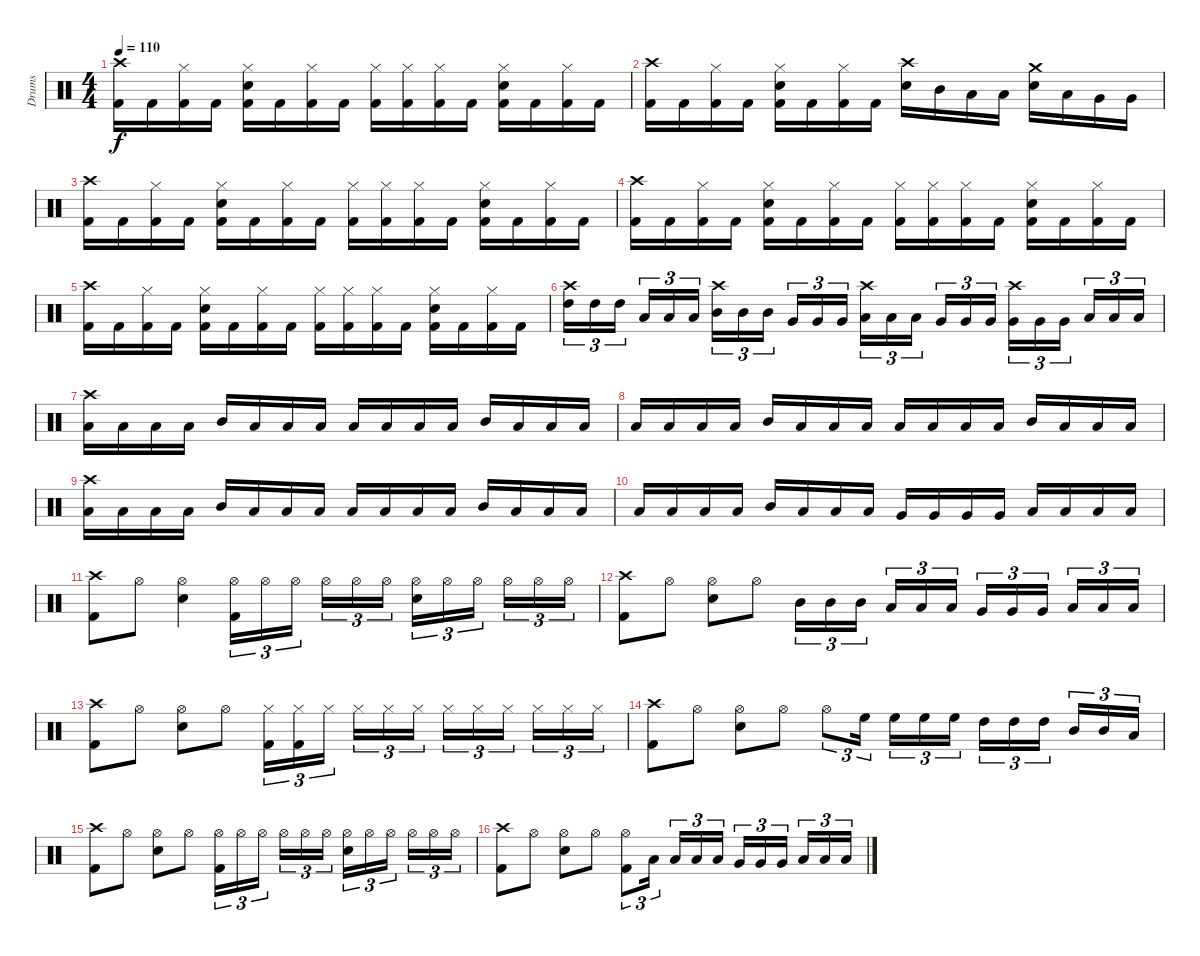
\track ("Drums" "Drums") {instrument percussion}
\staff {score}
\articulation defaults
\ts (4 4)
\tempo 110
\clef neutral
\ks c
("Crash high (hit)" "Kick (hit) 2").16{dy f} "Kick (hit) 2".16 ("Hi-Hat (closed)" "Kick (hit) 2").16 "Kick (hit) 2".16 ("Hi-Hat (closed)" "Electric Snare (hit)" "Kick (hit) 2").16 "Kick (hit) 2".16 ("Hi-Hat (closed)" "Kick (hit) 2").16 "Kick (hit) 2".16 ("Hi-Hat (closed)" "Kick (hit) 2").16 ("Hi-Hat (closed)" "Kick (hit) 2").16 ("Hi-Hat (closed)" "Kick (hit) 2").16 "Kick (hit) 2".16 ("Hi-Hat (closed)" "Electric Snare (hit)" "Kick (hit) 2").16 "Kick (hit) 2".16 ("Hi-Hat (closed)" "Kick (hit) 2").16 "Kick (hit) 2".16 |
("Crash high (hit)" "Kick (hit) 2").16 "Kick (hit) 2".16 ("Hi-Hat (closed)" "Kick (hit) 2").16 "Kick (hit) 2".16 ("Hi-Hat (closed)" "Electric Snare (hit)" "Kick (hit) 2").16 "Kick (hit) 2".16 ("Hi-Hat (closed)" "Kick (hit) 2").16 "Kick (hit) 2".16 ("Crash high (hit)" "Electric Snare (hit)").16 "Mid Tom (hit)".16 "Low Tom (hit)".16 "Low Tom (hit)".16 ("Crash medium (hit)" "Electric Snare (hit)").16 "Low Tom (hit)".16 "Very Low Tom (hit)".16 "Very Low Tom (hit)".16 |
("Crash high (hit)" "Kick (hit) 2").16 "Kick (hit) 2".16 ("Hi-Hat (closed)" "Kick (hit) 2").16 "Kick (hit) 2".16 ("Hi-Hat (closed)" "Electric Snare (hit)" "Kick (hit) 2").16 "Kick (hit) 2".16 ("Hi-Hat (closed)" "Kick (hit) 2").16 "Kick (hit) 2".16 ("Hi-Hat (closed)" "Kick (hit) 2").16 ("Hi-Hat (closed)" "Kick (hit) 2").16 ("Hi-Hat (closed)" "Kick (hit) 2").16 "Kick (hit) 2".16 ("Hi-Hat (closed)" "Electric Snare (hit)" "Kick (hit) 2").16 "Kick (hit) 2".16 ("Hi-Hat (closed)" "Kick (hit) 2").16 "Kick (hit) 2".16 |
("Crash high (hit)" "Kick (hit) 2").16 "Kick (hit) 2".16 ("Hi-Hat (closed)" "Kick (hit) 2").16 "Kick (hit) 2".16 ("Hi-Hat (closed)" "Electric Snare (hit)" "Kick (hit) 2").16 "Kick (hit) 2".16 ("Hi-Hat (closed)" "Kick (hit) 2").16 "Kick (hit) 2".16 ("Hi-Hat (closed)" "Kick (hit) 2").16 ("Hi-Hat (closed)" "Kick (hit) 2").16 ("Hi-Hat (closed)" "Kick (hit) 2").16 "Kick (hit) 2".16 ("Hi-Hat (closed)" "Electric Snare (hit)" "Kick (hit) 2").16 "Kick (hit) 2".16 ("Hi-Hat (closed)" "Kick (hit) 2").16 "Kick (hit) 2".16 |
("Crash high (hit)" "Kick (hit) 2").16 "Kick (hit) 2".16 ("Hi-Hat (closed)" "Kick (hit) 2").16 "Kick (hit) 2".16 ("Hi-Hat (closed)" "Electric Snare (hit)" "Kick (hit) 2").16 "Kick (hit) 2".16 ("Hi-Hat (closed)" "Kick (hit) 2").16 "Kick (hit) 2".16 ("Hi-Hat (closed)" "Kick (hit) 2").16 ("Hi-Hat (closed)" "Kick (hit) 2").16 ("Hi-Hat (closed)" "Kick (hit) 2").16 "Kick (hit) 2".16 ("Hi-Hat (closed)" "Electric Snare (hit)" "Kick (hit) 2").16 "Kick (hit) 2".16 ("Hi-Hat (closed)" "Kick (hit) 2").16 "Kick (hit) 2".16 |
("Crash high (hit)" "High Tom (hit)").16{tu (3 2)} "High Tom (hit)".16{tu (3 2)} "High Tom (hit)".16{tu (3 2)} "Low Tom (hit)".16{tu (3 2)} "Low Tom (hit)".16{tu (3 2)} "Low Tom (hit)".16{tu (3 2)} ("Crash high (hit)" "Mid Tom (hit)").16{tu (3 2)} "Mid Tom (hit)".16{tu (3 2)} "Mid Tom (hit)".16{tu (3 2)} "Very Low Tom (hit)".16{tu (3 2)} "Very Low Tom (hit)".16{tu (3 2)} "Very Low Tom (hit)".16{tu (3 2)} ("Crash high (hit)" "Low Tom (hit)").16{tu (3 2)} "Low Tom (hit)".16{tu (3 2)} "Low Tom (hit)".16{tu (3 2)} "Very Low Tom (hit)".16{tu (3 2)} "Very Low Tom (hit)".16{tu (3 2)} "Very Low Tom (hit)".16{tu (3 2)} ("Crash high (hit)" "Very Low Tom (hit)").16{tu (3 2)} "Very Low Tom (hit)".16{tu (3 2)} "Very Low Tom (hit)".16{tu (3 2)} "Low Floor Tom (hit)".16{tu (3 2)} "Low Floor Tom (hit)".16{tu (3 2)} "Low Floor Tom (hit)".16{tu (3 2)} |
("Crash high (hit)" "Low Tom (hit)").16 "Low Tom (hit)".16 "Low Tom (hit)".16 "Low Tom (hit)".16 "Mid Tom (hit)".16 "Low Tom (hit)".16 "Low Tom (hit)".16 "Low Tom (hit)".16 "Low Tom (hit)".16 "Low Tom (hit)".16 "Low Tom (hit)".16 "Low Tom (hit)".16 "Mid Tom (hit)".16 "Low Tom (hit)".16 "Low Tom (hit)".16 "Low Tom (hit)".16 |
"Low Tom (hit)".16 "Low Tom (hit)".16 "Low Tom (hit)".16 "Low Tom (hit)".16 "Mid Tom (hit)".16 "Low Tom (hit)".16 "Low Tom (hit)".16 "Low Tom (hit)".16 "Low Tom (hit)".16 "Low Tom (hit)".16 "Low Tom (hit)".16 "Low Tom (hit)".16 "Mid Tom (hit)".16 "Low Tom (hit)".16 "Low Tom (hit)".16 "Low Tom (hit)".16 |
("Crash high (hit)" "Low Tom (hit)").16 "Low Tom (hit)".16 "Low Tom (hit)".16 "Low Tom (hit)".16 "Mid Tom (hit)".16 "Low Tom (hit)".16 "Low Tom (hit)".16 "Low Tom (hit)".16 "Low Tom (hit)".16 "Low Tom (hit)".16 "Low Tom (hit)".16 "Low Tom (hit)".16 "Mid Tom (hit)".16 "Low Tom (hit)".16 "Low Tom (hit)".16 "Low Tom (hit)".16 |
"Low Tom (hit)".16 "Low Tom (hit)".16 "Low Tom (hit)".16 "Low Tom (hit)".16 "Mid Tom (hit)".16 "Low Tom (hit)".16 "Low Tom (hit)".16 "Low Tom (hit)".16 "Very Low Tom (hit)".16 "Very Low Tom (hit)".16 "Very Low Tom (hit)".16 "Very Low Tom (hit)".16 "Low Floor Tom (hit)".16 "Low Floor Tom (hit)".16 "Low Floor Tom (hit)".16 "Low Floor Tom (hit)".16 |
("Crash high (hit)" "Kick (hit) 2").8 "Hi-Hat (open)".8 ("Hi-Hat (open)" "Electric Snare (hit)").4 ("Hi-Hat (open)" "Kick (hit) 2").16{tu (3 2)} "Hi-Hat (open)".16{tu (3 2)} "Hi-Hat (open)".16{tu (3 2)} "Hi-Hat (open)".16{tu (3 2)} "Hi-Hat (open)".16{tu (3 2)} "Hi-Hat (open)".16{tu (3 2)} ("Hi-Hat (open)" "Electric Snare (hit)").16{tu (3 2)} "Hi-Hat (open)".16{tu (3 2)} "Hi-Hat (open)".16{tu (3 2)} "Hi-Hat (open)".16{tu (3 2)} "Hi-Hat (open)".16{tu (3 2)} "Hi-Hat (open)".16{tu (3 2)} |
("Crash high (hit)" "Kick (hit) 2").8 "Hi-Hat (open)".8 ("Hi-Hat (open)" "Electric Snare (hit)").8 "Hi-Hat (open)".8 "Mid Tom (hit)".16{tu (3 2)} "Mid Tom (hit)".16{tu (3 2)} "Mid Tom (hit)".16{tu (3 2)} "Low Tom (hit)".16{tu (3 2)} "Low Tom (hit)".16{tu (3 2)} "Low Tom (hit)".16{tu (3 2)} "Very Low Tom (hit)".16{tu (3 2)} "Very Low Tom (hit)".16{tu (3 2)} "Very Low Tom (hit)".16{tu (3 2)} "Low Tom (hit)".16{tu (3 2)} "Low Tom (hit)".16{tu (3 2)} "Low Tom (hit)".16{tu (3 2)} |
("Crash high (hit)" "Kick (hit) 2").8 "Hi-Hat (open)".8 ("Hi-Hat (open)" "Electric Snare (hit)").8 "Hi-Hat (open)".8 ("Hi-Hat (closed)" "Kick (hit) 2").16{tu (3 2)} ("Hi-Hat (closed)" "Kick (hit) 2").16{tu (3 2)} "Hi-Hat (closed)".16{tu (3 2)} "Hi-Hat (closed)".16{tu (3 2)} "Hi-Hat (closed)".16{tu (3 2)} "Hi-Hat (closed)".16{tu (3 2)} "Hi-Hat (closed)".16{tu (3 2)} "Hi-Hat (closed)".16{tu (3 2)} "Hi-Hat (closed)".16{tu (3 2)} "Hi-Hat (closed)".16{tu (3 2)} "Hi-Hat (closed)".16{tu (3 2)} "Hi-Hat (closed)".16{tu (3 2)} |
("Crash high (hit)" "Kick (hit) 2").8 "Hi-Hat (open)".8 ("Hi-Hat (open)" "Electric Snare (hit)").8 "Hi-Hat (open)".8 "Hi-Hat (open)".8{tu (3 2)} "High Floor Tom (hit)".16{tu (3 2)} "High Floor Tom (hit)".16{tu (3 2)} "High Floor Tom (hit)".16{tu (3 2)} "High Floor Tom (hit)".16{tu (3 2)} "High Tom (hit)".16{tu (3 2)} "High Tom (hit)".16{tu (3 2)} "High Tom (hit)".16{tu (3 2)} "Mid Tom (hit)".16{tu (3 2)} "Mid Tom (hit)".16{tu (3 2)} "Low Tom (hit)".16{tu (3 2)} |
("Crash high (hit)" "Kick (hit) 2").8 "Hi-Hat (open)".8 ("Hi-Hat (open)" "Electric Snare (hit)").8 "Hi-Hat (open)".8 ("Hi-Hat (open)" "Kick (hit) 2").16{tu (3 2)} "Hi-Hat (open)".16{tu (3 2)} "Hi-Hat (open)".16{tu (3 2)} "Hi-Hat (open)".16{tu (3 2)} "Hi-Hat (open)".16{tu (3 2)} "Hi-Hat (open)".16{tu (3 2)} ("Hi-Hat (open)" "Electric Snare (hit)").16{tu (3 2)} "Hi-Hat (open)".16{tu (3 2)} "Hi-Hat (open)".16{tu (3 2)} "Hi-Hat (open)".16{tu (3 2)} "Hi-Hat (open)".16{tu (3 2)} "Hi-Hat (open)".16{tu (3 2)} |
("Crash high (hit)" "Kick (hit) 2").8 "Hi-Hat (open)".8 ("Hi-Hat (open)" "Electric Snare (hit)").8 "Hi-Hat (open)".8 ("Hi-Hat (open)" "Kick (hit) 2").8{tu (3 2)} "Low Tom (hit)".16{tu (3 2)} "Low Tom (hit)".16{tu (3 2)} "Low Tom (hit)".16{tu (3 2)} "Low Tom (hit)".16{tu (3 2)} "Very Low Tom (hit)".16{tu (3 2)} "Very Low Tom (hit)".16{tu (3 2)} "Very Low Tom (hit)".16{tu (3 2)} "Low Floor Tom (hit)".16{tu (3 2)} "Low Floor Tom (hit)".16{tu (3 2)} "Low Floor Tom (hit)".16{tu (3 2)}
